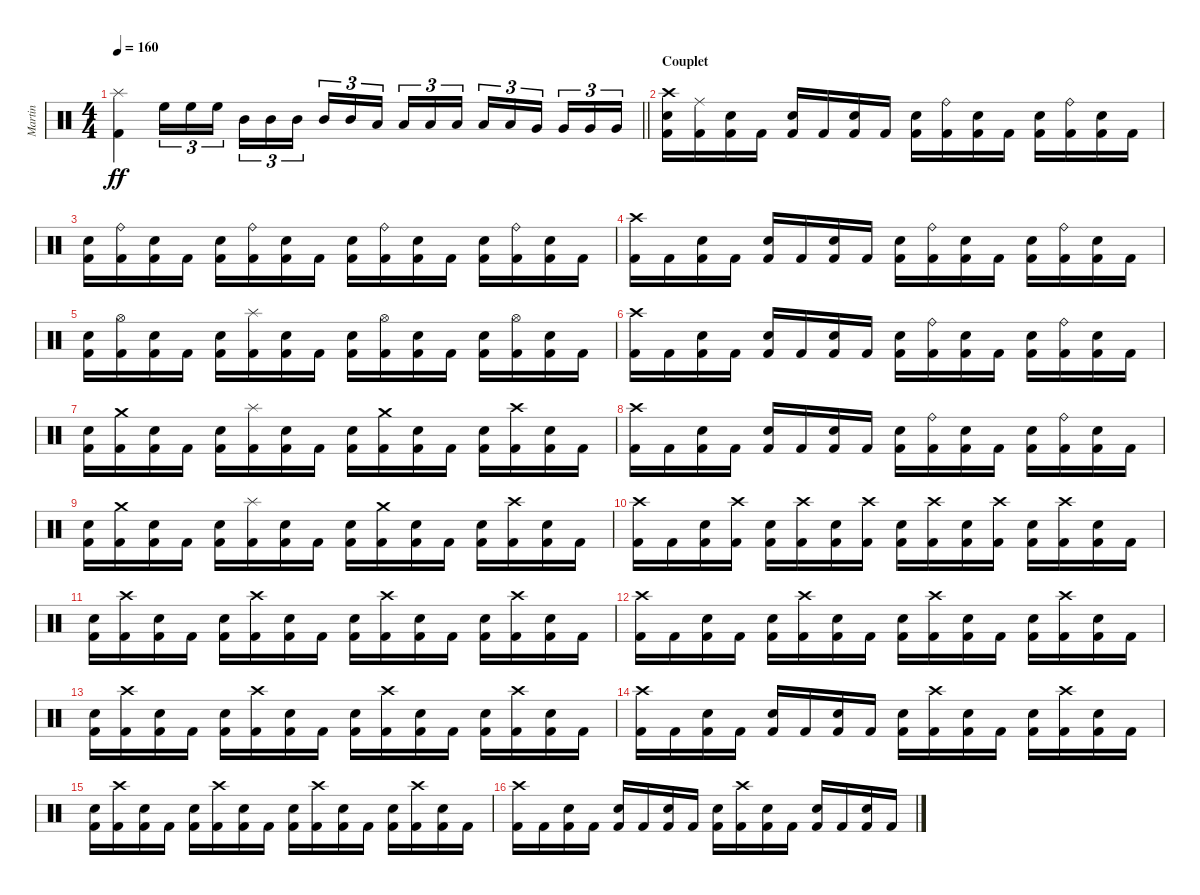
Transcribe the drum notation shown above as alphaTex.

\track ("Martin" "Martin") {instrument percussion}
\staff {score}
\articulation defaults
\ts (4 4)
\tempo 160
\clef neutral
\barLineRight lightlight
\ks c
("Splash (hit)" "Kick (hit) 2").4{dy ff} "High Floor Tom (hit)".16{tu (3 2)} "High Floor Tom (hit)".16{tu (3 2)} "High Floor Tom (hit)".16{tu (3 2) beam splitsecondary} "Mid Tom (hit)".16{tu (3 2)} "Mid Tom (hit)".16{tu (3 2)} "Mid Tom (hit)".16{tu (3 2)} "Mid Tom (hit)".16{tu (3 2)} "Mid Tom (hit)".16{tu (3 2)} "Low Tom (hit)".16{tu (3 2) beam splitsecondary} "Low Tom (hit)".16{tu (3 2)} "Low Tom (hit)".16{tu (3 2)} "Low Tom (hit)".16{tu (3 2)} "Low Tom (hit)".16{tu (3 2)} "Low Tom (hit)".16{tu (3 2)} "Very Low Tom (hit)".16{tu (3 2) beam splitsecondary} "Very Low Tom (hit)".16{tu (3 2)} "Very Low Tom (hit)".16{tu (3 2)} "Very Low Tom (hit)".16{tu (3 2)} |
\section ("" "Couplet")
("Crash high (hit)" "Electric Snare (hit)" "Kick (hit) 2").16 ("Ride (middle)" "Kick (hit) 2").16 ("Electric Snare (hit)" "Kick (hit) 2").16 "Kick (hit) 2".16 ("Electric Snare (hit)" "Kick (hit) 2").16 "Kick (hit) 2".16 ("Electric Snare (hit)" "Kick (hit) 2").16 "Kick (hit) 2".16 ("Electric Snare (hit)" "Kick (hit) 2").16 ("Ride (bell)" "Kick (hit) 2").16 ("Electric Snare (hit)" "Kick (hit) 2").16 "Kick (hit) 2".16 ("Electric Snare (hit)" "Kick (hit) 2").16 ("Ride (bell)" "Kick (hit) 2").16 ("Electric Snare (hit)" "Kick (hit) 2").16 "Kick (hit) 2".16 |
("Electric Snare (hit)" "Kick (hit) 2").16 ("Ride (bell)" "Kick (hit) 2").16 ("Electric Snare (hit)" "Kick (hit) 2").16 "Kick (hit) 2".16 ("Electric Snare (hit)" "Kick (hit) 2").16 ("Ride (bell)" "Kick (hit) 2").16 ("Electric Snare (hit)" "Kick (hit) 2").16 "Kick (hit) 2".16 ("Electric Snare (hit)" "Kick (hit) 2").16 ("Ride (bell)" "Kick (hit) 2").16 ("Electric Snare (hit)" "Kick (hit) 2").16 "Kick (hit) 2".16 ("Electric Snare (hit)" "Kick (hit) 2").16 ("Ride (bell)" "Kick (hit) 2").16 ("Electric Snare (hit)" "Kick (hit) 2").16 "Kick (hit) 2".16 |
("Crash high (hit)" "Kick (hit) 2").16 "Kick (hit) 2".16 ("Electric Snare (hit)" "Kick (hit) 2").16 "Kick (hit) 2".16 ("Electric Snare (hit)" "Kick (hit) 2").16 "Kick (hit) 2".16 ("Electric Snare (hit)" "Kick (hit) 2").16 "Kick (hit) 2".16 ("Electric Snare (hit)" "Kick (hit) 2").16 ("Ride (bell)" "Kick (hit) 2").16 ("Electric Snare (hit)" "Kick (hit) 2").16 "Kick (hit) 2".16 ("Electric Snare (hit)" "Kick (hit) 2").16 ("Ride (bell)" "Kick (hit) 2").16 ("Electric Snare (hit)" "Kick (hit) 2").16 "Kick (hit) 2".16 |
("Electric Snare (hit)" "Kick (hit) 2").16 ("Hi-Hat (open)" "Kick (hit) 2").16 ("Electric Snare (hit)" "Kick (hit) 2").16 "Kick (hit) 2".16 ("Electric Snare (hit)" "Kick (hit) 2").16 ("Splash (hit)" "Kick (hit) 2").16 ("Electric Snare (hit)" "Kick (hit) 2").16 "Kick (hit) 2".16 ("Electric Snare (hit)" "Kick (hit) 2").16 ("Hi-Hat (open)" "Kick (hit) 2").16 ("Electric Snare (hit)" "Kick (hit) 2").16 "Kick (hit) 2".16 ("Electric Snare (hit)" "Kick (hit) 2").16 ("Hi-Hat (open)" "Kick (hit) 2").16 ("Electric Snare (hit)" "Kick (hit) 2").16 "Kick (hit) 2".16 |
("Crash high (hit)" "Kick (hit) 2").16 "Kick (hit) 2".16 ("Electric Snare (hit)" "Kick (hit) 2").16 "Kick (hit) 2".16 ("Electric Snare (hit)" "Kick (hit) 2").16 "Kick (hit) 2".16 ("Electric Snare (hit)" "Kick (hit) 2").16 "Kick (hit) 2".16 ("Electric Snare (hit)" "Kick (hit) 2").16 ("Ride (bell)" "Kick (hit) 2").16 ("Electric Snare (hit)" "Kick (hit) 2").16 "Kick (hit) 2".16 ("Electric Snare (hit)" "Kick (hit) 2").16 ("Ride (bell)" "Kick (hit) 2").16 ("Electric Snare (hit)" "Kick (hit) 2").16 "Kick (hit) 2".16 |
("Electric Snare (hit)" "Kick (hit) 2").16 ("Crash medium (hit)" "Kick (hit) 2").16 ("Electric Snare (hit)" "Kick (hit) 2").16 "Kick (hit) 2".16 ("Electric Snare (hit)" "Kick (hit) 2").16 ("Splash (hit)" "Kick (hit) 2").16 ("Electric Snare (hit)" "Kick (hit) 2").16 "Kick (hit) 2".16 ("Electric Snare (hit)" "Kick (hit) 2").16 ("Crash medium (hit)" "Kick (hit) 2").16 ("Electric Snare (hit)" "Kick (hit) 2").16 "Kick (hit) 2".16 ("Electric Snare (hit)" "Kick (hit) 2").16 ("Crash high (hit)" "Kick (hit) 2").16 ("Electric Snare (hit)" "Kick (hit) 2").16 "Kick (hit) 2".16 |
("Crash high (hit)" "Kick (hit) 2").16 "Kick (hit) 2".16 ("Electric Snare (hit)" "Kick (hit) 2").16 "Kick (hit) 2".16 ("Electric Snare (hit)" "Kick (hit) 2").16 "Kick (hit) 2".16 ("Electric Snare (hit)" "Kick (hit) 2").16 "Kick (hit) 2".16 ("Electric Snare (hit)" "Kick (hit) 2").16 ("Ride (bell)" "Kick (hit) 2").16 ("Electric Snare (hit)" "Kick (hit) 2").16 "Kick (hit) 2".16 ("Electric Snare (hit)" "Kick (hit) 2").16 ("Ride (bell)" "Kick (hit) 2").16 ("Electric Snare (hit)" "Kick (hit) 2").16 "Kick (hit) 2".16 |
("Electric Snare (hit)" "Kick (hit) 2").16 ("Crash medium (hit)" "Kick (hit) 2").16 ("Electric Snare (hit)" "Kick (hit) 2").16 "Kick (hit) 2".16 ("Electric Snare (hit)" "Kick (hit) 2").16 ("Splash (hit)" "Kick (hit) 2").16 ("Electric Snare (hit)" "Kick (hit) 2").16 "Kick (hit) 2".16 ("Electric Snare (hit)" "Kick (hit) 2").16 ("Crash medium (hit)" "Kick (hit) 2").16 ("Electric Snare (hit)" "Kick (hit) 2").16 "Kick (hit) 2".16 ("Electric Snare (hit)" "Kick (hit) 2").16 ("Crash high (hit)" "Kick (hit) 2").16 ("Electric Snare (hit)" "Kick (hit) 2").16 "Kick (hit) 2".16 |
("Crash high (hit)" "Kick (hit) 2").16 "Kick (hit) 2".16 ("Electric Snare (hit)" "Kick (hit) 2").16 ("Crash high (hit)" "Kick (hit) 2").16 ("Electric Snare (hit)" "Kick (hit) 2").16 ("Crash high (hit)" "Kick (hit) 2").16 ("Electric Snare (hit)" "Kick (hit) 2").16 ("Crash high (hit)" "Kick (hit) 2").16 ("Electric Snare (hit)" "Kick (hit) 2").16 ("Crash high (hit)" "Kick (hit) 2").16 ("Electric Snare (hit)" "Kick (hit) 2").16 ("Crash high (hit)" "Kick (hit) 2").16 ("Electric Snare (hit)" "Kick (hit) 2").16 ("Crash high (hit)" "Kick (hit) 2").16 ("Electric Snare (hit)" "Kick (hit) 2").16 "Kick (hit) 2".16 |
("Electric Snare (hit)" "Kick (hit) 2").16 ("Crash high (hit)" "Kick (hit) 2").16 ("Electric Snare (hit)" "Kick (hit) 2").16 "Kick (hit) 2".16 ("Electric Snare (hit)" "Kick (hit) 2").16 ("Crash high (hit)" "Kick (hit) 2").16 ("Electric Snare (hit)" "Kick (hit) 2").16 "Kick (hit) 2".16 ("Electric Snare (hit)" "Kick (hit) 2").16 ("Crash high (hit)" "Kick (hit) 2").16 ("Electric Snare (hit)" "Kick (hit) 2").16 "Kick (hit) 2".16 ("Electric Snare (hit)" "Kick (hit) 2").16 ("Crash high (hit)" "Kick (hit) 2").16 ("Electric Snare (hit)" "Kick (hit) 2").16 "Kick (hit) 2".16 |
("Crash high (hit)" "Kick (hit) 2").16 "Kick (hit) 2".16 ("Electric Snare (hit)" "Kick (hit) 2").16 "Kick (hit) 2".16 ("Electric Snare (hit)" "Kick (hit) 2").16 ("Crash high (hit)" "Kick (hit) 2").16 ("Electric Snare (hit)" "Kick (hit) 2").16 "Kick (hit) 2".16 ("Electric Snare (hit)" "Kick (hit) 2").16 ("Crash high (hit)" "Kick (hit) 2").16 ("Electric Snare (hit)" "Kick (hit) 2").16 "Kick (hit) 2".16 ("Electric Snare (hit)" "Kick (hit) 2").16 ("Crash high (hit)" "Kick (hit) 2").16 ("Electric Snare (hit)" "Kick (hit) 2").16 "Kick (hit) 2".16 |
("Electric Snare (hit)" "Kick (hit) 2").16 ("Crash high (hit)" "Kick (hit) 2").16 ("Electric Snare (hit)" "Kick (hit) 2").16 "Kick (hit) 2".16 ("Electric Snare (hit)" "Kick (hit) 2").16 ("Crash high (hit)" "Kick (hit) 2").16 ("Electric Snare (hit)" "Kick (hit) 2").16 "Kick (hit) 2".16 ("Electric Snare (hit)" "Kick (hit) 2").16 ("Crash high (hit)" "Kick (hit) 2").16 ("Electric Snare (hit)" "Kick (hit) 2").16 "Kick (hit) 2".16 ("Electric Snare (hit)" "Kick (hit) 2").16 ("Crash high (hit)" "Kick (hit) 2").16 ("Electric Snare (hit)" "Kick (hit) 2").16 "Kick (hit) 2".16 |
("Crash high (hit)" "Kick (hit) 2").16 "Kick (hit) 2".16 ("Electric Snare (hit)" "Kick (hit) 2").16 "Kick (hit) 2".16 ("Electric Snare (hit)" "Kick (hit) 2").16 "Kick (hit) 2".16 ("Electric Snare (hit)" "Kick (hit) 2").16 "Kick (hit) 2".16 ("Electric Snare (hit)" "Kick (hit) 2").16 ("Crash high (hit)" "Kick (hit) 2").16 ("Electric Snare (hit)" "Kick (hit) 2").16 "Kick (hit) 2".16 ("Electric Snare (hit)" "Kick (hit) 2").16 ("Crash high (hit)" "Kick (hit) 2").16 ("Electric Snare (hit)" "Kick (hit) 2").16 "Kick (hit) 2".16 |
("Electric Snare (hit)" "Kick (hit) 2").16 ("Crash high (hit)" "Kick (hit) 2").16 ("Electric Snare (hit)" "Kick (hit) 2").16 "Kick (hit) 2".16 ("Electric Snare (hit)" "Kick (hit) 2").16 ("Crash high (hit)" "Kick (hit) 2").16 ("Electric Snare (hit)" "Kick (hit) 2").16 "Kick (hit) 2".16 ("Electric Snare (hit)" "Kick (hit) 2").16 ("Crash high (hit)" "Kick (hit) 2").16 ("Electric Snare (hit)" "Kick (hit) 2").16 "Kick (hit) 2".16 ("Electric Snare (hit)" "Kick (hit) 2").16 ("Crash high (hit)" "Kick (hit) 2").16 ("Electric Snare (hit)" "Kick (hit) 2").16 "Kick (hit) 2".16 |
("Crash high (hit)" "Kick (hit) 2").16 "Kick (hit) 2".16 ("Electric Snare (hit)" "Kick (hit) 2").16 "Kick (hit) 2".16 ("Electric Snare (hit)" "Kick (hit) 2").16 "Kick (hit) 2".16 ("Electric Snare (hit)" "Kick (hit) 2").16 "Kick (hit) 2".16 ("Electric Snare (hit)" "Kick (hit) 2").16 ("Crash high (hit)" "Kick (hit) 2").16 ("Electric Snare (hit)" "Kick (hit) 2").16 "Kick (hit) 2".16 ("Electric Snare (hit)" "Kick (hit) 2").16 "Kick (hit) 2".16 ("Electric Snare (hit)" "Kick (hit) 2").16 "Kick (hit) 2".16
